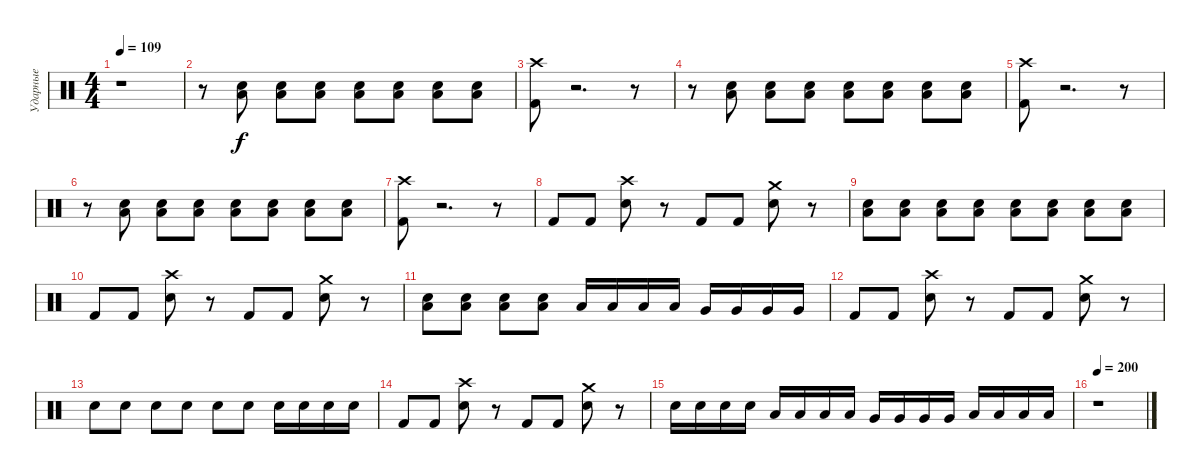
\track ("Ударные" "Ударные") {instrument percussion}
\staff {score}
\articulation defaults
\ts (4 4)
\tempo 109
\clef neutral
\ks c
r.1{dy f} |
r.8 ("Low Floor Tom (hit)" "Snare (hit) 2").8 ("Low Floor Tom (hit)" "Snare (hit) 2").8 ("Low Floor Tom (hit)" "Snare (hit) 2").8 ("Low Floor Tom (hit)" "Snare (hit) 2").8 ("Low Floor Tom (hit)" "Snare (hit) 2").8 ("Low Floor Tom (hit)" "Snare (hit) 2").8 ("Low Floor Tom (hit)" "Snare (hit) 2").8 |
("Crash high (hit)" "Kick (hit) 2").8 r.2{d} r.8 |
r.8 ("Low Floor Tom (hit)" "Snare (hit) 2").8 ("Low Floor Tom (hit)" "Snare (hit) 2").8 ("Low Floor Tom (hit)" "Snare (hit) 2").8 ("Low Floor Tom (hit)" "Snare (hit) 2").8 ("Low Floor Tom (hit)" "Snare (hit) 2").8 ("Low Floor Tom (hit)" "Snare (hit) 2").8 ("Low Floor Tom (hit)" "Snare (hit) 2").8 |
("Crash high (hit)" "Kick (hit) 2").8 r.2{d} r.8 |
r.8 ("Low Floor Tom (hit)" "Snare (hit) 2").8 ("Low Floor Tom (hit)" "Snare (hit) 2").8 ("Low Floor Tom (hit)" "Snare (hit) 2").8 ("Low Floor Tom (hit)" "Snare (hit) 2").8 ("Low Floor Tom (hit)" "Snare (hit) 2").8 ("Low Floor Tom (hit)" "Snare (hit) 2").8 ("Low Floor Tom (hit)" "Snare (hit) 2").8 |
("Crash high (hit)" "Kick (hit) 2").8 r.2{d} r.8 |
"Kick (hit) 2".8 "Kick (hit) 2".8 ("Crash high (hit)" "Snare (hit) 2").8 r.8 "Kick (hit) 2".8 "Kick (hit) 2".8 ("Crash medium (hit)" "Snare (hit) 2").8 r.8 |
("Low Floor Tom (hit)" "Snare (hit) 2").8 ("Low Floor Tom (hit)" "Snare (hit) 2").8 ("Low Floor Tom (hit)" "Snare (hit) 2").8 ("Low Floor Tom (hit)" "Snare (hit) 2").8 ("Low Floor Tom (hit)" "Snare (hit) 2").8 ("Low Floor Tom (hit)" "Snare (hit) 2").8 ("Low Floor Tom (hit)" "Snare (hit) 2").8 ("Low Floor Tom (hit)" "Snare (hit) 2").8 |
"Kick (hit) 2".8 "Kick (hit) 2".8 ("Crash high (hit)" "Snare (hit) 2").8 r.8 "Kick (hit) 2".8 "Kick (hit) 2".8 ("Crash medium (hit)" "Snare (hit) 2").8 r.8 |
("Low Floor Tom (hit)" "Snare (hit) 2").8 ("Low Floor Tom (hit)" "Snare (hit) 2").8 ("Low Floor Tom (hit)" "Snare (hit) 2").8 ("Low Floor Tom (hit)" "Snare (hit) 2").8 "Low Tom (hit)".16 "Low Tom (hit)".16 "Low Tom (hit)".16 "Low Tom (hit)".16 "Very Low Tom (hit)".16 "Very Low Tom (hit)".16 "Very Low Tom (hit)".16 "Very Low Tom (hit)".16 |
"Kick (hit) 2".8 "Kick (hit) 2".8 ("Crash high (hit)" "Snare (hit) 2").8 r.8 "Kick (hit) 2".8 "Kick (hit) 2".8 ("Crash medium (hit)" "Snare (hit) 2").8 r.8 |
"Snare (hit) 2".8 "Snare (hit) 2".8 "Snare (hit) 2".8 "Snare (hit) 2".8 "Snare (hit) 2".8 "Snare (hit) 2".8 "Snare (hit) 2".16 "Snare (hit) 2".16 "Snare (hit) 2".16 "Snare (hit) 2".16 |
"Kick (hit) 2".8 "Kick (hit) 2".8 ("Crash high (hit)" "Snare (hit) 2").8 r.8 "Kick (hit) 2".8 "Kick (hit) 2".8 ("Crash medium (hit)" "Snare (hit) 2").8 r.8 |
"Snare (hit) 2".16 "Snare (hit) 2".16 "Snare (hit) 2".16 "Snare (hit) 2".16 "Low Tom (hit)".16 "Low Tom (hit)".16 "Low Tom (hit)".16 "Low Tom (hit)".16 "Very Low Tom (hit)".16 "Very Low Tom (hit)".16 "Very Low Tom (hit)".16 "Very Low Tom (hit)".16 "Low Floor Tom (hit)".16 "Low Floor Tom (hit)".16 "Low Floor Tom (hit)".16 "Low Floor Tom (hit)".16 |
\tempo 200
r.1
